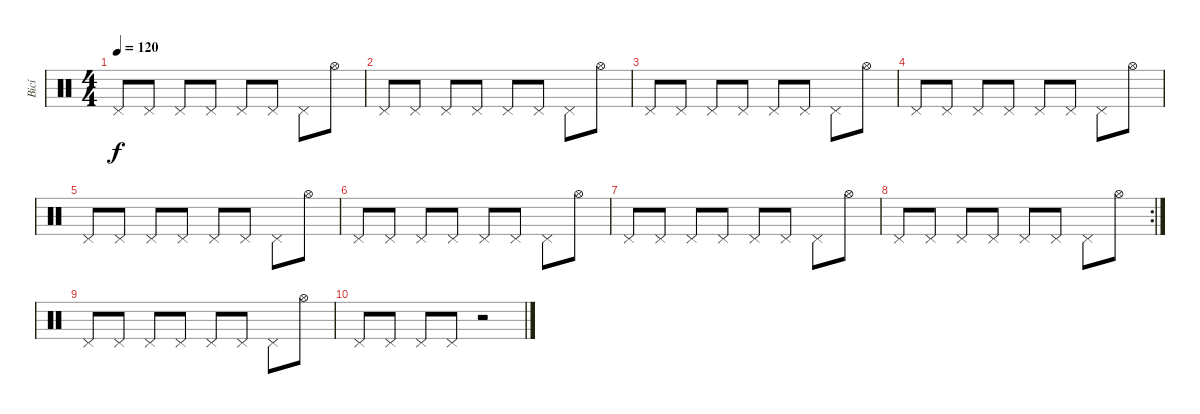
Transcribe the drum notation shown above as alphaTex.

\track ("Bicí" "Bicí") {instrument percussion}
\staff {score}
\articulation defaults
\ts (4 4)
\tempo 120
\clef neutral
\ks c "Pedal Hi-Hat (hit)".8{dy f} "Pedal Hi-Hat (hit)".8 "Pedal Hi-Hat (hit)".8 "Pedal Hi-Hat (hit)".8 "Pedal Hi-Hat (hit)".8 "Pedal Hi-Hat (hit)".8 "Pedal Hi-Hat (hit)".8 "Hi-Hat (open)".8
|
"Pedal Hi-Hat (hit)".8 "Pedal Hi-Hat (hit)".8 "Pedal Hi-Hat (hit)".8 "Pedal Hi-Hat (hit)".8 "Pedal Hi-Hat (hit)".8 "Pedal Hi-Hat (hit)".8 "Pedal Hi-Hat (hit)".8 "Hi-Hat (open)".8 |
"Pedal Hi-Hat (hit)".8 "Pedal Hi-Hat (hit)".8 "Pedal Hi-Hat (hit)".8 "Pedal Hi-Hat (hit)".8 "Pedal Hi-Hat (hit)".8 "Pedal Hi-Hat (hit)".8 "Pedal Hi-Hat (hit)".8 "Hi-Hat (open)".8 |
"Pedal Hi-Hat (hit)".8 "Pedal Hi-Hat (hit)".8 "Pedal Hi-Hat (hit)".8 "Pedal Hi-Hat (hit)".8 "Pedal Hi-Hat (hit)".8 "Pedal Hi-Hat (hit)".8 "Pedal Hi-Hat (hit)".8 "Hi-Hat (open)".8 |
"Pedal Hi-Hat (hit)".8 "Pedal Hi-Hat (hit)".8 "Pedal Hi-Hat (hit)".8 "Pedal Hi-Hat (hit)".8 "Pedal Hi-Hat (hit)".8 "Pedal Hi-Hat (hit)".8 "Pedal Hi-Hat (hit)".8 "Hi-Hat (open)".8 |
"Pedal Hi-Hat (hit)".8 "Pedal Hi-Hat (hit)".8 "Pedal Hi-Hat (hit)".8 "Pedal Hi-Hat (hit)".8 "Pedal Hi-Hat (hit)".8 "Pedal Hi-Hat (hit)".8 "Pedal Hi-Hat (hit)".8 "Hi-Hat (open)".8 |
"Pedal Hi-Hat (hit)".8 "Pedal Hi-Hat (hit)".8 "Pedal Hi-Hat (hit)".8 "Pedal Hi-Hat (hit)".8 "Pedal Hi-Hat (hit)".8 "Pedal Hi-Hat (hit)".8 "Pedal Hi-Hat (hit)".8 "Hi-Hat (open)".8 |
\rc 2 "Pedal Hi-Hat (hit)".8 "Pedal Hi-Hat (hit)".8 "Pedal Hi-Hat (hit)".8 "Pedal Hi-Hat (hit)".8 "Pedal Hi-Hat (hit)".8 "Pedal Hi-Hat (hit)".8 "Pedal Hi-Hat (hit)".8 "Hi-Hat (open)".8
|
"Pedal Hi-Hat (hit)".8 "Pedal Hi-Hat (hit)".8 "Pedal Hi-Hat (hit)".8 "Pedal Hi-Hat (hit)".8 "Pedal Hi-Hat (hit)".8 "Pedal Hi-Hat (hit)".8 "Pedal Hi-Hat (hit)".8 "Hi-Hat (open)".8 |
"Pedal Hi-Hat (hit)".8 "Pedal Hi-Hat (hit)".8 "Pedal Hi-Hat (hit)".8 "Pedal Hi-Hat (hit)".8 r.2
